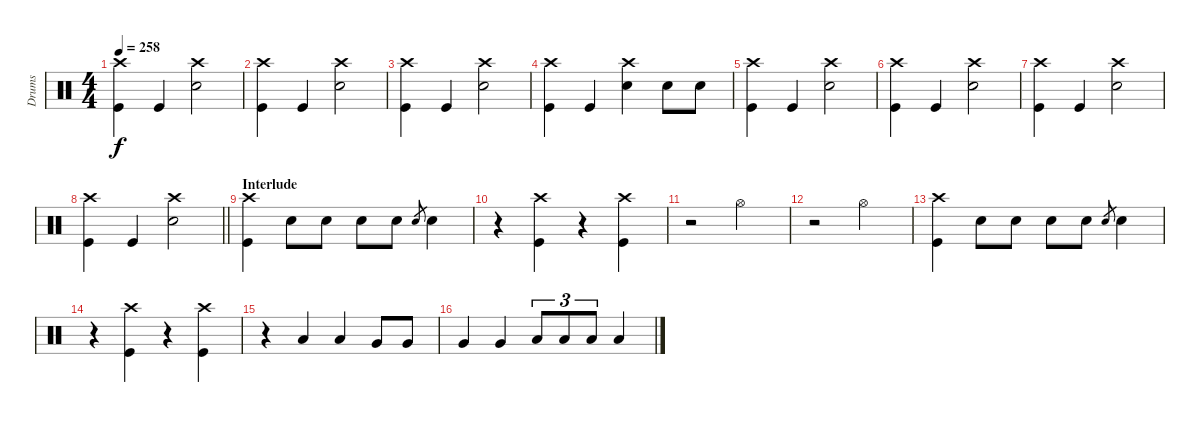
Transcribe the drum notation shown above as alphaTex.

\track ("Drums" "Drums") {instrument percussion}
\staff {score}
\articulation defaults
\ts (4 4)
\tempo 258
\clef neutral
\ks c
("Crash high (hit)" "Kick (hit)").4{dy f} "Kick (hit)".4 ("Crash high (hit)" "Electric Snare (hit)").2 |
("Crash high (hit)" "Kick (hit)").4 "Kick (hit)".4 ("Crash high (hit)" "Electric Snare (hit)").2 |
("Crash high (hit)" "Kick (hit)").4 "Kick (hit)".4 ("Crash high (hit)" "Electric Snare (hit)").2 |
("Crash high (hit)" "Kick (hit)").4 "Kick (hit)".4 ("Crash high (hit)" "Electric Snare (hit)").4 "Electric Snare (hit)".8 "Electric Snare (hit)".8 |
("Crash high (hit)" "Kick (hit)").4 "Kick (hit)".4 ("Crash high (hit)" "Electric Snare (hit)").2 |
("Crash high (hit)" "Kick (hit)").4 "Kick (hit)".4 ("Crash high (hit)" "Electric Snare (hit)").2 |
("Crash high (hit)" "Kick (hit)").4 "Kick (hit)".4 ("Crash high (hit)" "Electric Snare (hit)").2 |
\barLineRight lightlight
("Crash high (hit)" "Kick (hit)").4 "Kick (hit)".4 ("Crash high (hit)" "Electric Snare (hit)").2 |
\section ("" "Interlude")
("Crash high (hit)" "Kick (hit)").4 "Electric Snare (hit)".8 "Electric Snare (hit)".8 "Electric Snare (hit)".8 "Electric Snare (hit)".8 "Electric Snare (hit)".8{gr} "Electric Snare (hit)".4 |
r.4 ("Crash high (hit)" "Kick (hit)").4 r.4 ("Crash high (hit)" "Kick (hit)").4 |
r.2 "Hi-Hat (open)".2 |
r.2 "Hi-Hat (open)".2 |
("Crash high (hit)" "Kick (hit)").4 "Electric Snare (hit)".8 "Electric Snare (hit)".8 "Electric Snare (hit)".8 "Electric Snare (hit)".8 "Electric Snare (hit)".8{gr} "Electric Snare (hit)".4 |
r.4 ("Crash high (hit)" "Kick (hit)").4 r.4 ("Crash high (hit)" "Kick (hit)").4 |
r.4 "Low Tom (hit)".4 "Low Tom (hit)".4 "Very Low Tom (hit)".8 "Very Low Tom (hit)".8 |
"Very Low Tom (hit)".4 "Very Low Tom (hit)".4 "Low Floor Tom (hit)".8{tu (3 2)} "Low Floor Tom (hit)".8{tu (3 2)} "Low Floor Tom (hit)".8{tu (3 2)} "Low Floor Tom (hit)".4
